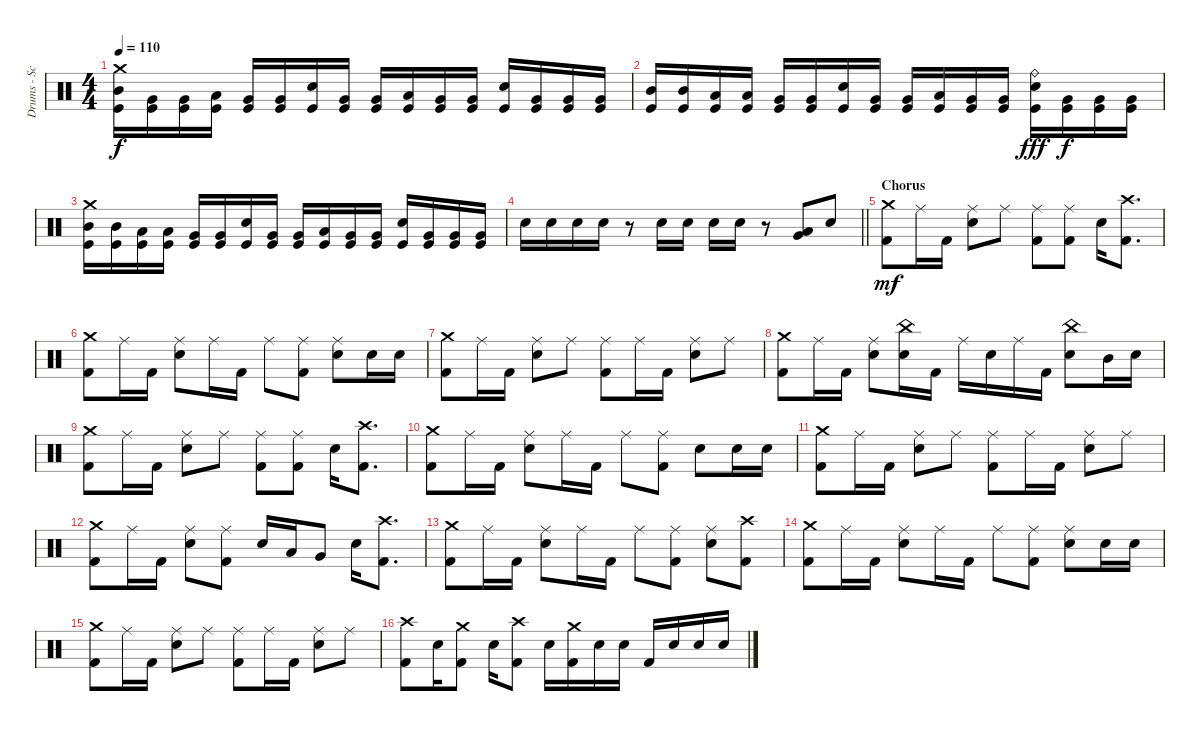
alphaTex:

\track ("Drums - Scott" "Drums - Sc") {instrument percussion}
\staff {score}
\articulation defaults
\ts (4 4)
\tempo 110
\clef neutral
\ks c
("Crash medium (hit)" "Mid Tom (hit)" "Kick (hit)").16{dy f} ("Very Low Tom (hit)" "Kick (hit)").16 ("Very Low Tom (hit)" "Kick (hit)").16 ("Low Tom (hit)" "Kick (hit)").16 ("Very Low Tom (hit)" "Kick (hit)").16 ("Very Low Tom (hit)" "Kick (hit)").16 ("Electric Snare (hit)" "Kick (hit)").16 ("Very Low Tom (hit)" "Kick (hit)").16 ("Very Low Tom (hit)" "Kick (hit)").16 ("Low Tom (hit)" "Kick (hit)").16 ("Very Low Tom (hit)" "Kick (hit)").16 ("Very Low Tom (hit)" "Kick (hit)").16 ("Electric Snare (hit)" "Kick (hit)").16 ("Very Low Tom (hit)" "Kick (hit)").16 ("Very Low Tom (hit)" "Kick (hit)").16 ("Very Low Tom (hit)" "Kick (hit)").16 |
("Mid Tom (hit)" "Kick (hit)").16 ("Mid Tom (hit)" "Kick (hit)").16 ("Low Tom (hit)" "Kick (hit)").16 ("Low Tom (hit)" "Kick (hit)").16 ("Very Low Tom (hit)" "Kick (hit)").16 ("Very Low Tom (hit)" "Kick (hit)").16 ("Electric Snare (hit)" "Kick (hit)").16 ("Very Low Tom (hit)" "Kick (hit)").16 ("Very Low Tom (hit)" "Kick (hit)").16 ("Low Tom (hit)" "Kick (hit)").16 ("Very Low Tom (hit)" "Kick (hit)").16 ("Very Low Tom (hit)" "Kick (hit)").16 ("Ride (bell)" "Electric Snare (hit)" "Kick (hit)").16{dy fff} ("Very Low Tom (hit)" "Kick (hit)").16{dy f} ("Very Low Tom (hit)" "Kick (hit)").16 ("Very Low Tom (hit)" "Kick (hit)").16 |
("Crash medium (hit)" "Mid Tom (hit)" "Kick (hit)").16 ("Mid Tom (hit)" "Kick (hit)").16 ("Low Tom (hit)" "Kick (hit)").16 ("Low Tom (hit)" "Kick (hit)").16 ("Very Low Tom (hit)" "Kick (hit)").16 ("Very Low Tom (hit)" "Kick (hit)").16 ("Electric Snare (hit)" "Kick (hit)").16 ("Very Low Tom (hit)" "Kick (hit)").16 ("Very Low Tom (hit)" "Kick (hit)").16 ("Low Tom (hit)" "Kick (hit)").16 ("Very Low Tom (hit)" "Kick (hit)").16 ("Very Low Tom (hit)" "Kick (hit)").16 ("Electric Snare (hit)" "Kick (hit)").16 ("Very Low Tom (hit)" "Kick (hit)").16 ("Very Low Tom (hit)" "Kick (hit)").16 ("Very Low Tom (hit)" "Kick (hit)").16 |
\barLineRight lightlight "Electric Snare (hit)".16 "Electric Snare (hit)".16 "Electric Snare (hit)".16 "Electric Snare (hit)".16
r.8 "Electric Snare (hit)".16 "Electric Snare (hit)".16 "Electric Snare (hit)".16 "Electric Snare (hit)".16 r.8 ("Low Tom (hit)" "Very Low Tom (hit)").8 "Electric Snare (hit)".8 |
\section ("" "Chorus")
("Crash medium (hit)" "Kick (hit) 2").8{dy mf} "Ride (middle)".16 "Kick (hit) 2".16 ("Ride (middle)" "Electric Snare (hit)").8 "Ride (middle)".8 ("Ride (middle)" "Kick (hit) 2").8 ("Ride (middle)" "Kick (hit) 2").8 "Electric Snare (hit)".16 ("Crash high (hit)" "Kick (hit) 2").8{d} |
("Crash medium (hit)" "Kick (hit) 2").8 "Ride (middle)".16 "Kick (hit) 2".16 ("Ride (middle)" "Electric Snare (hit)").8 "Ride (middle)".16 "Kick (hit) 2".16 "Ride (middle)".8 ("Ride (middle)" "Kick (hit) 2").8 ("Ride (middle)" "Electric Snare (hit)").8 "Electric Snare (hit)".16 "Electric Snare (hit)".16 |
("Crash medium (hit)" "Kick (hit) 2").8 "Ride (middle)".16 "Kick (hit) 2".16 ("Ride (middle)" "Electric Snare (hit)").8 "Ride (middle)".8 ("Ride (middle)" "Kick (hit) 2").8 "Ride (middle)".16 "Kick (hit) 2".16 ("Ride (middle)" "Electric Snare (hit)").8 "Ride (middle)".8 |
("Crash medium (hit)" "Kick (hit) 2").8 "Ride (middle)".16 "Kick (hit) 2".16 ("Ride (middle)" "Electric Snare (hit)").8 ("China (hit)" "Electric Snare (hit)").16 "Kick (hit) 2".16 "Ride (middle)".16 "Electric Snare (hit)".16 "Ride (middle)".16 "Kick (hit) 2".16 ("China (hit)" "Electric Snare (hit)").8 "Mid Tom (hit)".16 "Electric Snare (hit)".16 |
("Crash medium (hit)" "Kick (hit) 2").8 "Ride (middle)".16 "Kick (hit) 2".16 ("Ride (middle)" "Electric Snare (hit)").8 "Ride (middle)".8 ("Ride (middle)" "Kick (hit) 2").8 ("Ride (middle)" "Kick (hit) 2").8 "Electric Snare (hit)".16 ("Crash high (hit)" "Kick (hit) 2").8{d} |
("Crash medium (hit)" "Kick (hit) 2").8 "Ride (middle)".16 "Kick (hit) 2".16 ("Ride (middle)" "Electric Snare (hit)").8 "Ride (middle)".16 "Kick (hit) 2".16 "Ride (middle)".8 ("Ride (middle)" "Kick (hit) 2").8 "Electric Snare (hit)".8 "Electric Snare (hit)".16 "Electric Snare (hit)".16 |
("Crash medium (hit)" "Kick (hit) 2").8 "Ride (middle)".16 "Kick (hit) 2".16 ("Ride (middle)" "Electric Snare (hit)").8 "Ride (middle)".8 ("Ride (middle)" "Kick (hit) 2").8 "Ride (middle)".16 "Kick (hit) 2".16 ("Ride (middle)" "Electric Snare (hit)").8 "Ride (middle)".8 |
("Crash medium (hit)" "Kick (hit) 2").8 "Ride (middle)".16 "Kick (hit) 2".16 ("Ride (middle)" "Electric Snare (hit)").8 ("Ride (middle)" "Kick (hit) 2").8 "Electric Snare (hit)".16 "Low Tom (hit)".16 "Very Low Tom (hit)".8 "Electric Snare (hit)".16 ("Crash high (hit)" "Kick (hit) 2").8{d} |
("Crash medium (hit)" "Kick (hit) 2").8 "Ride (middle)".16 "Kick (hit) 2".16 ("Ride (middle)" "Electric Snare (hit)").8 "Ride (middle)".16 "Kick (hit) 2".16 "Ride (middle)".8 ("Ride (middle)" "Kick (hit) 2").8 ("Ride (middle)" "Electric Snare (hit)").8 ("Crash high (hit)" "Kick (hit) 2").8 |
("Crash medium (hit)" "Kick (hit) 2").8 "Ride (middle)".16 "Kick (hit) 2".16 ("Ride (middle)" "Electric Snare (hit)").8 "Ride (middle)".16 "Kick (hit) 2".16 "Ride (middle)".8 ("Ride (middle)" "Kick (hit) 2").8 ("Ride (middle)" "Electric Snare (hit)").8 "Electric Snare (hit)".16 "Electric Snare (hit)".16 |
("Crash medium (hit)" "Kick (hit) 2").8 "Ride (middle)".16 "Kick (hit) 2".16 ("Ride (middle)" "Electric Snare (hit)").8 "Ride (middle)".8 ("Ride (middle)" "Kick (hit) 2").8 "Ride (middle)".16 "Kick (hit) 2".16 ("Ride (middle)" "Electric Snare (hit)").8 "Ride (middle)".8 |
("Crash high (hit)" "Kick (hit) 2").8 "Electric Snare (hit)".16 ("Crash medium (hit)" "Kick (hit) 2").8 "Electric Snare (hit)".16 ("Crash high (hit)" "Kick (hit) 2").8 "Electric Snare (hit)".16 ("Crash medium (hit)" "Kick (hit) 2").16 "Electric Snare (hit)".16 "Electric Snare (hit)".16 "Kick (hit) 2".16 "Electric Snare (hit)".16 "Electric Snare (hit)".16 "Electric Snare (hit)".16
